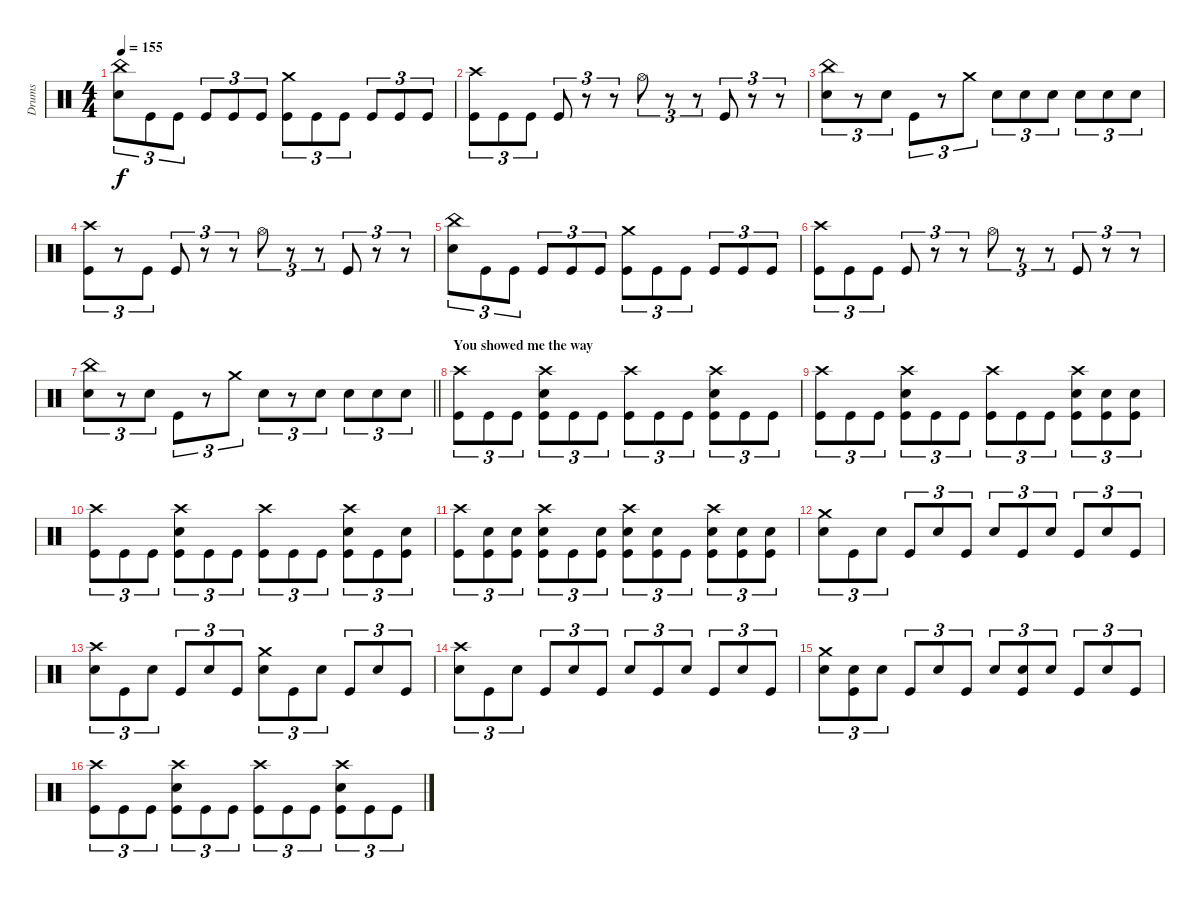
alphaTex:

\track ("Drums" "Drums") {instrument percussion}
\staff {score}
\articulation defaults
\ts (4 4)
\tempo 155
\clef neutral
\ks c
("China (hit)" "Electric Snare (hit)").8{tu (3 2) dy f} "Kick (hit)".8{tu (3 2)} "Kick (hit)".8{tu (3 2)} "Kick (hit)".8{tu (3 2)} "Kick (hit)".8{tu (3 2)} "Kick (hit)".8{tu (3 2)} ("Crash medium (hit)" "Kick (hit)").8{tu (3 2)} "Kick (hit)".8{tu (3 2)} "Kick (hit)".8{tu (3 2)} "Kick (hit)".8{tu (3 2)} "Kick (hit)".8{tu (3 2)} "Kick (hit)".8{tu (3 2)} |
("Crash high (hit)" "Kick (hit)").8{tu (3 2)} "Kick (hit)".8{tu (3 2)} "Kick (hit)".8{tu (3 2)} "Kick (hit)".8{tu (3 2)} r.8{tu (3 2)} r.8{tu (3 2)} "Hi-Hat (open)".8{tu (3 2)} r.8{tu (3 2)} r.8{tu (3 2)} "Kick (hit)".8{tu (3 2)} r.8{tu (3 2)} r.8{tu (3 2)} |
("China (hit)" "Electric Snare (hit)").8{tu (3 2)} r.8{tu (3 2)} "Electric Snare (hit)".8{tu (3 2)} "Kick (hit)".8{tu (3 2)} r.8{tu (3 2)} "Crash medium (hit)".8{tu (3 2)} "Electric Snare (hit)".8{tu (3 2)} "Electric Snare (hit)".8{tu (3 2)} "Electric Snare (hit)".8{tu (3 2)} "Electric Snare (hit)".8{tu (3 2)} "Electric Snare (hit)".8{tu (3 2)} "Electric Snare (hit)".8{tu (3 2)} |
("Crash high (hit)" "Kick (hit)").8{tu (3 2)} r.8{tu (3 2)} "Kick (hit)".8{tu (3 2)} "Kick (hit)".8{tu (3 2)} r.8{tu (3 2)} r.8{tu (3 2)} "Hi-Hat (open)".8{tu (3 2)} r.8{tu (3 2)} r.8{tu (3 2)} "Kick (hit)".8{tu (3 2)} r.8{tu (3 2)} r.8{tu (3 2)} |
("China (hit)" "Electric Snare (hit)").8{tu (3 2)} "Kick (hit)".8{tu (3 2)} "Kick (hit)".8{tu (3 2)} "Kick (hit)".8{tu (3 2)} "Kick (hit)".8{tu (3 2)} "Kick (hit)".8{tu (3 2)} ("Crash medium (hit)" "Kick (hit)").8{tu (3 2)} "Kick (hit)".8{tu (3 2)} "Kick (hit)".8{tu (3 2)} "Kick (hit)".8{tu (3 2)} "Kick (hit)".8{tu (3 2)} "Kick (hit)".8{tu (3 2)} |
("Crash high (hit)" "Kick (hit)").8{tu (3 2)} "Kick (hit)".8{tu (3 2)} "Kick (hit)".8{tu (3 2)} "Kick (hit)".8{tu (3 2)} r.8{tu (3 2)} r.8{tu (3 2)} "Hi-Hat (open)".8{tu (3 2)} r.8{tu (3 2)} r.8{tu (3 2)} "Kick (hit)".8{tu (3 2)} r.8{tu (3 2)} r.8{tu (3 2)} |
\barLineRight lightlight
("China (hit)" "Electric Snare (hit)").8{tu (3 2)} r.8{tu (3 2)} "Electric Snare (hit)".8{tu (3 2)} "Kick (hit)".8{tu (3 2)} r.8{tu (3 2)} "Crash medium (hit)".8{tu (3 2)} "Electric Snare (hit)".8{tu (3 2)} r.8{tu (3 2)} "Electric Snare (hit)".8{tu (3 2)} "Electric Snare (hit)".8{tu (3 2)} "Electric Snare (hit)".8{tu (3 2)} "Electric Snare (hit)".8{tu (3 2)} |
\section ("" "You showed me the way")
("Crash high (hit)" "Kick (hit)").8{tu (3 2)} "Kick (hit)".8{tu (3 2)} "Kick (hit)".8{tu (3 2)} ("Crash high (hit)" "Electric Snare (hit)" "Kick (hit)").8{tu (3 2)} "Kick (hit)".8{tu (3 2)} "Kick (hit)".8{tu (3 2)} ("Crash high (hit)" "Kick (hit)").8{tu (3 2)} "Kick (hit)".8{tu (3 2)} "Kick (hit)".8{tu (3 2)} ("Crash high (hit)" "Electric Snare (hit)" "Kick (hit)").8{tu (3 2)} "Kick (hit)".8{tu (3 2)} "Kick (hit)".8{tu (3 2)} |
("Crash high (hit)" "Kick (hit)").8{tu (3 2)} "Kick (hit)".8{tu (3 2)} "Kick (hit)".8{tu (3 2)} ("Crash high (hit)" "Electric Snare (hit)" "Kick (hit)").8{tu (3 2)} "Kick (hit)".8{tu (3 2)} "Kick (hit)".8{tu (3 2)} ("Crash high (hit)" "Kick (hit)").8{tu (3 2)} "Kick (hit)".8{tu (3 2)} "Kick (hit)".8{tu (3 2)} ("Crash high (hit)" "Electric Snare (hit)" "Kick (hit)").8{tu (3 2)} ("Electric Snare (hit)" "Kick (hit)").8{tu (3 2)} ("Electric Snare (hit)" "Kick (hit)").8{tu (3 2)} |
("Crash high (hit)" "Kick (hit)").8{tu (3 2)} "Kick (hit)".8{tu (3 2)} "Kick (hit)".8{tu (3 2)} ("Crash high (hit)" "Electric Snare (hit)" "Kick (hit)").8{tu (3 2)} "Kick (hit)".8{tu (3 2)} "Kick (hit)".8{tu (3 2)} ("Crash high (hit)" "Kick (hit)").8{tu (3 2)} "Kick (hit)".8{tu (3 2)} "Kick (hit)".8{tu (3 2)} ("Crash high (hit)" "Electric Snare (hit)" "Kick (hit)").8{tu (3 2)} "Kick (hit)".8{tu (3 2)} ("Electric Snare (hit)" "Kick (hit)").8{tu (3 2)} |
("Crash high (hit)" "Kick (hit)").8{tu (3 2)} ("Electric Snare (hit)" "Kick (hit)").8{tu (3 2)} ("Electric Snare (hit)" "Kick (hit)").8{tu (3 2)} ("Crash high (hit)" "Electric Snare (hit)" "Kick (hit)").8{tu (3 2)} "Kick (hit)".8{tu (3 2)} ("Electric Snare (hit)" "Kick (hit)").8{tu (3 2)} ("Crash high (hit)" "Electric Snare (hit)" "Kick (hit)").8{tu (3 2)} ("Electric Snare (hit)" "Kick (hit)").8{tu (3 2)} "Kick (hit)".8{tu (3 2)} ("Crash high (hit)" "Electric Snare (hit)" "Kick (hit)").8{tu (3 2)} ("Electric Snare (hit)" "Kick (hit)").8{tu (3 2)} ("Electric Snare (hit)" "Kick (hit)").8{tu (3 2)} |
("Crash medium (hit)" "Electric Snare (hit)").8{tu (3 2)} "Kick (hit)".8{tu (3 2)} "Electric Snare (hit)".8{tu (3 2)} "Kick (hit)".8{tu (3 2)} "Electric Snare (hit)".8{tu (3 2)} "Kick (hit)".8{tu (3 2)} "Electric Snare (hit)".8{tu (3 2)} "Kick (hit)".8{tu (3 2)} "Electric Snare (hit)".8{tu (3 2)} "Kick (hit)".8{tu (3 2)} "Electric Snare (hit)".8{tu (3 2)} "Kick (hit)".8{tu (3 2)} |
("Crash high (hit)" "Electric Snare (hit)").8{tu (3 2)} "Kick (hit)".8{tu (3 2)} "Electric Snare (hit)".8{tu (3 2)} "Kick (hit)".8{tu (3 2)} "Electric Snare (hit)".8{tu (3 2)} "Kick (hit)".8{tu (3 2)} ("Crash medium (hit)" "Electric Snare (hit)").8{tu (3 2)} "Kick (hit)".8{tu (3 2)} "Electric Snare (hit)".8{tu (3 2)} "Kick (hit)".8{tu (3 2)} "Electric Snare (hit)".8{tu (3 2)} "Kick (hit)".8{tu (3 2)} |
("Crash high (hit)" "Electric Snare (hit)").8{tu (3 2)} "Kick (hit)".8{tu (3 2)} "Electric Snare (hit)".8{tu (3 2)} "Kick (hit)".8{tu (3 2)} "Electric Snare (hit)".8{tu (3 2)} "Kick (hit)".8{tu (3 2)} "Electric Snare (hit)".8{tu (3 2)} "Kick (hit)".8{tu (3 2)} "Electric Snare (hit)".8{tu (3 2)} "Kick (hit)".8{tu (3 2)} "Electric Snare (hit)".8{tu (3 2)} "Kick (hit)".8{tu (3 2)} |
("Crash medium (hit)" "Electric Snare (hit)").8{tu (3 2)} ("Electric Snare (hit)" "Kick (hit)").8{tu (3 2)} "Electric Snare (hit)".8{tu (3 2)} "Kick (hit)".8{tu (3 2)} "Electric Snare (hit)".8{tu (3 2)} "Kick (hit)".8{tu (3 2)} "Electric Snare (hit)".8{tu (3 2)} ("Electric Snare (hit)" "Kick (hit)").8{tu (3 2)} "Electric Snare (hit)".8{tu (3 2)} "Kick (hit)".8{tu (3 2)} "Electric Snare (hit)".8{tu (3 2)} "Kick (hit)".8{tu (3 2)} |
("Crash high (hit)" "Kick (hit)").8{tu (3 2)} "Kick (hit)".8{tu (3 2)} "Kick (hit)".8{tu (3 2)} ("Crash high (hit)" "Electric Snare (hit)" "Kick (hit)").8{tu (3 2)} "Kick (hit)".8{tu (3 2)} "Kick (hit)".8{tu (3 2)} ("Crash high (hit)" "Kick (hit)").8{tu (3 2)} "Kick (hit)".8{tu (3 2)} "Kick (hit)".8{tu (3 2)} ("Crash high (hit)" "Electric Snare (hit)" "Kick (hit)").8{tu (3 2)} "Kick (hit)".8{tu (3 2)} "Kick (hit)".8{tu (3 2)}
